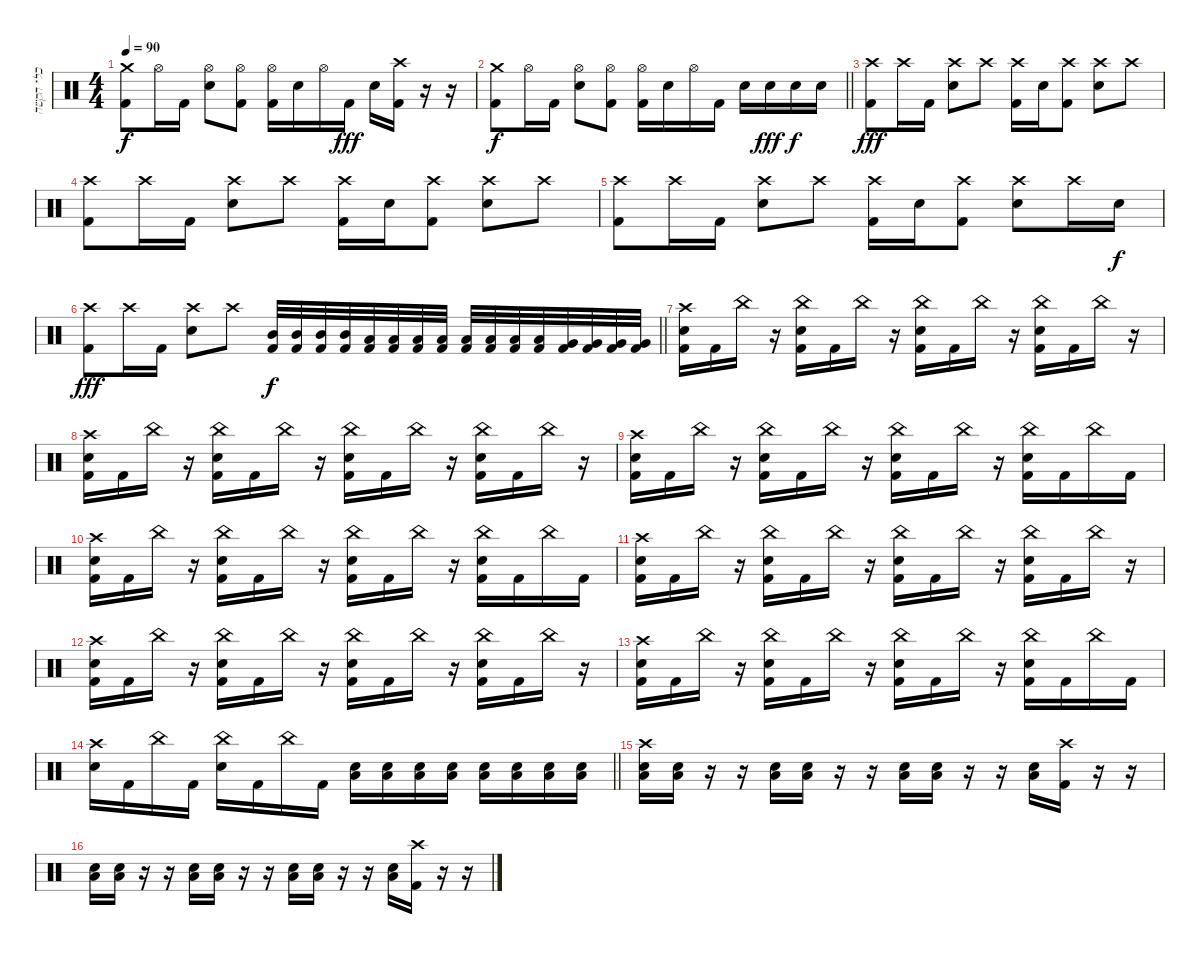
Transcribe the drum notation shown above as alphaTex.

\track ("כלי הקשה" "כלי הקשה") {instrument percussion}
\staff {score}
\articulation defaults
\ts (4 4)
\tempo 90
\clef neutral
\ks c
("Crash medium (hit)" "Kick (hit) 2").8{dy f} "Hi-Hat (open)".16 "Kick (hit) 2".16 ("Hi-Hat (open)" "Electric Snare (hit)").8 ("Hi-Hat (open)" "Kick (hit) 2").8 ("Hi-Hat (open)" "Kick (hit) 2").16 "Electric Snare (hit)".16 "Hi-Hat (open)".16 "Kick (hit) 2".16{dy fff} "Electric Snare (hit)".16 ("Crash high (hit)" "Kick (hit) 2").16 r.16 r.16 |
\barLineRight lightlight
("Crash medium (hit)" "Kick (hit) 2").8{dy f} "Hi-Hat (open)".16 "Kick (hit) 2".16 ("Hi-Hat (open)" "Electric Snare (hit)").8 ("Hi-Hat (open)" "Kick (hit) 2").8 ("Hi-Hat (open)" "Kick (hit) 2").16 "Electric Snare (hit)".16 "Hi-Hat (open)".16 "Kick (hit) 2".16 "Electric Snare (hit)".16 "Electric Snare (hit)".16{dy fff} "Electric Snare (hit)".16{dy f} "Electric Snare (hit)".16 |
("Kick (hit) 2" "Crash high (hit)").8{dy fff} "Crash high (hit)".16 "Kick (hit) 2".16 ("Electric Snare (hit)" "Crash high (hit)").8 "Crash high (hit)".8 ("Kick (hit) 2" "Crash high (hit)").16 "Electric Snare (hit)".16 ("Kick (hit) 2" "Crash high (hit)").8 ("Electric Snare (hit)" "Crash high (hit)").8 "Crash high (hit)".8 |
("Kick (hit) 2" "Crash high (hit)").8 "Crash high (hit)".16 "Kick (hit) 2".16 ("Electric Snare (hit)" "Crash high (hit)").8 "Crash high (hit)".8 ("Kick (hit) 2" "Crash high (hit)").16 "Electric Snare (hit)".16 ("Kick (hit) 2" "Crash high (hit)").8 ("Electric Snare (hit)" "Crash high (hit)").8 "Crash high (hit)".8 |
("Kick (hit) 2" "Crash high (hit)").8 "Crash high (hit)".16 "Kick (hit) 2".16 ("Electric Snare (hit)" "Crash high (hit)").8 "Crash high (hit)".8 ("Kick (hit) 2" "Crash high (hit)").16 "Electric Snare (hit)".16 ("Kick (hit) 2" "Crash high (hit)").8 ("Electric Snare (hit)" "Crash high (hit)").8 "Crash high (hit)".16 "Electric Snare (hit)".16{dy f} |
\barLineRight lightlight
("Kick (hit) 2" "Crash high (hit)").8{dy fff} "Crash high (hit)".16 "Kick (hit) 2".16 ("Electric Snare (hit)" "Crash high (hit)").8 "Crash high (hit)".8 ("Mid Tom (hit)" "Kick (hit) 2").32{dy f} ("Mid Tom (hit)" "Kick (hit) 2").32 ("Mid Tom (hit)" "Kick (hit) 2").32 ("Mid Tom (hit)" "Kick (hit) 2").32 ("Low Tom (hit)" "Kick (hit) 2").32 ("Low Tom (hit)" "Kick (hit) 2").32 ("Low Tom (hit)" "Kick (hit) 2").32 ("Low Tom (hit)" "Kick (hit) 2").32 ("Low Floor Tom (hit)" "Kick (hit) 2").32 ("Low Floor Tom (hit)" "Kick (hit) 2").32 ("Low Floor Tom (hit)" "Kick (hit) 2").32 ("Low Floor Tom (hit)" "Kick (hit) 2").32 ("Very Low Tom (hit)" "Kick (hit) 2").32 ("Very Low Tom (hit)" "Kick (hit) 2").32 ("Very Low Tom (hit)" "Kick (hit) 2").32 ("Very Low Tom (hit)" "Kick (hit) 2").32 |
("Kick (hit) 2" "Crash high (hit)" "Electric Snare (hit)").16 "Kick (hit) 2".16 "China (hit)".16 r.16 ("Kick (hit) 2" "China (hit)" "Electric Snare (hit)").16 "Kick (hit) 2".16 "China (hit)".16 r.16 ("Kick (hit) 2" "China (hit)" "Electric Snare (hit)").16 "Kick (hit) 2".16 "China (hit)".16 r.16 ("Kick (hit) 2" "China (hit)" "Electric Snare (hit)").16 "Kick (hit) 2".16 "China (hit)".16 r.16 |
("Kick (hit) 2" "Crash high (hit)" "Electric Snare (hit)").16 "Kick (hit) 2".16 "China (hit)".16 r.16 ("Kick (hit) 2" "China (hit)" "Electric Snare (hit)").16 "Kick (hit) 2".16 "China (hit)".16 r.16 ("Kick (hit) 2" "China (hit)" "Electric Snare (hit)").16 "Kick (hit) 2".16 "China (hit)".16 r.16 ("Kick (hit) 2" "China (hit)" "Electric Snare (hit)").16 "Kick (hit) 2".16 "China (hit)".16 r.16 |
("Kick (hit) 2" "Crash high (hit)" "Electric Snare (hit)").16 "Kick (hit) 2".16 "China (hit)".16 r.16 ("Kick (hit) 2" "China (hit)" "Electric Snare (hit)").16 "Kick (hit) 2".16 "China (hit)".16 r.16 ("Kick (hit) 2" "China (hit)" "Electric Snare (hit)").16 "Kick (hit) 2".16 "China (hit)".16 r.16 ("Kick (hit) 2" "China (hit)" "Electric Snare (hit)").16 "Kick (hit) 2".16 "China (hit)".16 "Kick (hit) 2".16 |
("Kick (hit) 2" "Crash high (hit)" "Electric Snare (hit)").16 "Kick (hit) 2".16 "China (hit)".16 r.16 ("Kick (hit) 2" "China (hit)" "Electric Snare (hit)").16 "Kick (hit) 2".16 "China (hit)".16 r.16 ("Kick (hit) 2" "China (hit)" "Electric Snare (hit)").16 "Kick (hit) 2".16 "China (hit)".16 r.16 ("Kick (hit) 2" "China (hit)" "Electric Snare (hit)").16 "Kick (hit) 2".16 "China (hit)".16 "Kick (hit) 2".16 |
("Kick (hit) 2" "Crash high (hit)" "Electric Snare (hit)").16 "Kick (hit) 2".16 "China (hit)".16 r.16 ("Kick (hit) 2" "China (hit)" "Electric Snare (hit)").16 "Kick (hit) 2".16 "China (hit)".16 r.16 ("Kick (hit) 2" "China (hit)" "Electric Snare (hit)").16 "Kick (hit) 2".16 "China (hit)".16 r.16 ("Kick (hit) 2" "China (hit)" "Electric Snare (hit)").16 "Kick (hit) 2".16 "China (hit)".16 r.16 |
("Kick (hit) 2" "Crash high (hit)" "Electric Snare (hit)").16 "Kick (hit) 2".16 "China (hit)".16 r.16 ("Kick (hit) 2" "China (hit)" "Electric Snare (hit)").16 "Kick (hit) 2".16 "China (hit)".16 r.16 ("Kick (hit) 2" "China (hit)" "Electric Snare (hit)").16 "Kick (hit) 2".16 "China (hit)".16 r.16 ("Kick (hit) 2" "China (hit)" "Electric Snare (hit)").16 "Kick (hit) 2".16 "China (hit)".16 r.16 |
("Kick (hit) 2" "Crash high (hit)" "Electric Snare (hit)").16 "Kick (hit) 2".16 "China (hit)".16 r.16 ("Kick (hit) 2" "China (hit)" "Electric Snare (hit)").16 "Kick (hit) 2".16 "China (hit)".16 r.16 ("Kick (hit) 2" "China (hit)" "Electric Snare (hit)").16 "Kick (hit) 2".16 "China (hit)".16 r.16 ("Kick (hit) 2" "China (hit)" "Electric Snare (hit)").16 "Kick (hit) 2".16 "China (hit)".16 "Kick (hit) 2".16 |
\barLineRight lightlight
("Crash high (hit)" "Electric Snare (hit)").16 "Kick (hit) 2".16 "China (hit)".16 "Kick (hit) 2".16 ("China (hit)" "Electric Snare (hit)").16 "Kick (hit) 2".16 "China (hit)".16 "Kick (hit) 2".16 ("Electric Snare (hit)" "Low Floor Tom (hit)").16 ("Electric Snare (hit)" "Low Floor Tom (hit)").16 ("Electric Snare (hit)" "Low Floor Tom (hit)").16 ("Electric Snare (hit)" "Low Floor Tom (hit)").16 ("Electric Snare (hit)" "Low Floor Tom (hit)").16 ("Electric Snare (hit)" "Low Floor Tom (hit)").16 ("Electric Snare (hit)" "Low Floor Tom (hit)").16 ("Electric Snare (hit)" "Low Floor Tom (hit)").16 |
("Low Floor Tom (hit)" "Electric Snare (hit)" "Crash high (hit)").16 ("Low Floor Tom (hit)" "Electric Snare (hit)").16 r.16 r.16 ("Low Floor Tom (hit)" "Electric Snare (hit)").16 ("Low Floor Tom (hit)" "Electric Snare (hit)").16 r.16 r.16 ("Low Floor Tom (hit)" "Electric Snare (hit)").16 ("Low Floor Tom (hit)" "Electric Snare (hit)").16 r.16 r.16 ("Low Floor Tom (hit)" "Electric Snare (hit)").16 ("Crash high (hit)" "Kick (hit) 2").16 r.16 r.16 |
("Low Floor Tom (hit)" "Electric Snare (hit)").16 ("Low Floor Tom (hit)" "Electric Snare (hit)").16 r.16 r.16 ("Low Floor Tom (hit)" "Electric Snare (hit)").16 ("Low Floor Tom (hit)" "Electric Snare (hit)").16 r.16 r.16 ("Low Floor Tom (hit)" "Electric Snare (hit)").16 ("Low Floor Tom (hit)" "Electric Snare (hit)").16 r.16 r.16 ("Low Floor Tom (hit)" "Electric Snare (hit)").16 ("Crash high (hit)" "Kick (hit) 2").16 r.16 r.16
